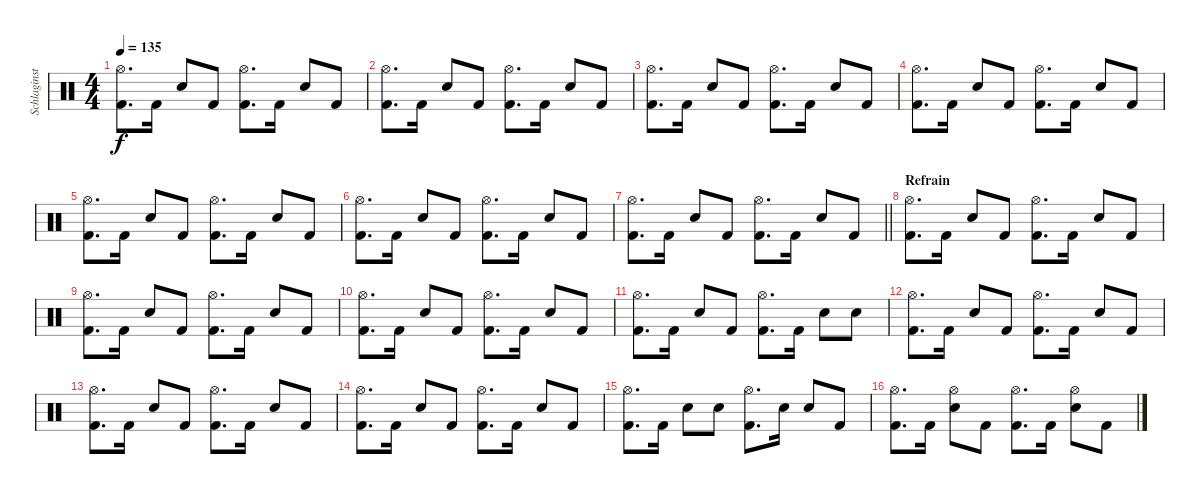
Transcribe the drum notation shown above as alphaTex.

\track ("Schlaginstrumente - Auswahl" "Schlaginst") {instrument percussion}
\staff {score}
\articulation defaults
\ts (4 4)
\tempo 135
\clef neutral
\ks c
("Hi-Hat (open)" "Kick (hit) 2").8{d dy f} "Kick (hit) 2".16 "Electric Snare (hit)".8 "Kick (hit) 2".8 ("Hi-Hat (open)" "Kick (hit) 2").8{d} "Kick (hit) 2".16 "Electric Snare (hit)".8 "Kick (hit) 2".8 |
("Hi-Hat (open)" "Kick (hit) 2").8{d} "Kick (hit) 2".16 "Electric Snare (hit)".8 "Kick (hit) 2".8 ("Hi-Hat (open)" "Kick (hit) 2").8{d} "Kick (hit) 2".16 "Electric Snare (hit)".8 "Kick (hit) 2".8 |
("Hi-Hat (open)" "Kick (hit) 2").8{d} "Kick (hit) 2".16 "Electric Snare (hit)".8 "Kick (hit) 2".8 ("Hi-Hat (open)" "Kick (hit) 2").8{d} "Kick (hit) 2".16 "Electric Snare (hit)".8 "Kick (hit) 2".8 |
("Hi-Hat (open)" "Kick (hit) 2").8{d} "Kick (hit) 2".16 "Electric Snare (hit)".8 "Kick (hit) 2".8 ("Hi-Hat (open)" "Kick (hit) 2").8{d} "Kick (hit) 2".16 "Electric Snare (hit)".8 "Kick (hit) 2".8 |
("Hi-Hat (open)" "Kick (hit) 2").8{d} "Kick (hit) 2".16 "Electric Snare (hit)".8 "Kick (hit) 2".8 ("Hi-Hat (open)" "Kick (hit) 2").8{d} "Kick (hit) 2".16 "Electric Snare (hit)".8 "Kick (hit) 2".8 |
("Hi-Hat (open)" "Kick (hit) 2").8{d} "Kick (hit) 2".16 "Electric Snare (hit)".8 "Kick (hit) 2".8 ("Hi-Hat (open)" "Kick (hit) 2").8{d} "Kick (hit) 2".16 "Electric Snare (hit)".8 "Kick (hit) 2".8 |
\barLineRight lightlight
("Hi-Hat (open)" "Kick (hit) 2").8{d} "Kick (hit) 2".16 "Electric Snare (hit)".8 "Kick (hit) 2".8 ("Hi-Hat (open)" "Kick (hit) 2").8{d} "Kick (hit) 2".16 "Electric Snare (hit)".8 "Kick (hit) 2".8 |
\section ("" "Refrain")
("Hi-Hat (open)" "Kick (hit) 2").8{d} "Kick (hit) 2".16 "Electric Snare (hit)".8 "Kick (hit) 2".8 ("Hi-Hat (open)" "Kick (hit) 2").8{d} "Kick (hit) 2".16 "Electric Snare (hit)".8 "Kick (hit) 2".8 |
("Hi-Hat (open)" "Kick (hit) 2").8{d} "Kick (hit) 2".16 "Electric Snare (hit)".8 "Kick (hit) 2".8 ("Hi-Hat (open)" "Kick (hit) 2").8{d} "Kick (hit) 2".16 "Electric Snare (hit)".8 "Kick (hit) 2".8 |
("Hi-Hat (open)" "Kick (hit) 2").8{d} "Kick (hit) 2".16 "Electric Snare (hit)".8 "Kick (hit) 2".8 ("Hi-Hat (open)" "Kick (hit) 2").8{d} "Kick (hit) 2".16 "Electric Snare (hit)".8 "Kick (hit) 2".8 |
("Hi-Hat (open)" "Kick (hit) 2").8{d} "Kick (hit) 2".16 "Electric Snare (hit)".8 "Kick (hit) 2".8 ("Hi-Hat (open)" "Kick (hit) 2").8{d} "Kick (hit) 2".16 "Electric Snare (hit)".8 "Electric Snare (hit)".8 |
("Hi-Hat (open)" "Kick (hit) 2").8{d} "Kick (hit) 2".16 "Electric Snare (hit)".8 "Kick (hit) 2".8 ("Hi-Hat (open)" "Kick (hit) 2").8{d} "Kick (hit) 2".16 "Electric Snare (hit)".8 "Kick (hit) 2".8 |
("Hi-Hat (open)" "Kick (hit) 2").8{d} "Kick (hit) 2".16 "Electric Snare (hit)".8 "Kick (hit) 2".8 ("Hi-Hat (open)" "Kick (hit) 2").8{d} "Kick (hit) 2".16 "Electric Snare (hit)".8 "Kick (hit) 2".8 |
("Hi-Hat (open)" "Kick (hit) 2").8{d} "Kick (hit) 2".16 "Electric Snare (hit)".8 "Kick (hit) 2".8 ("Hi-Hat (open)" "Kick (hit) 2").8{d} "Kick (hit) 2".16 "Electric Snare (hit)".8 "Kick (hit) 2".8 |
("Hi-Hat (open)" "Kick (hit) 2").8{d} "Kick (hit) 2".16 "Electric Snare (hit)".8 "Electric Snare (hit)".8 ("Hi-Hat (open)" "Kick (hit) 2").8{d} "Electric Snare (hit)".16 "Electric Snare (hit)".8 "Kick (hit) 2".8 |
("Hi-Hat (open)" "Kick (hit) 2").8{d} "Kick (hit) 2".16 ("Hi-Hat (open)" "Electric Snare (hit)").8 "Kick (hit) 2".8 ("Hi-Hat (open)" "Kick (hit) 2").8{d} "Kick (hit) 2".16 ("Hi-Hat (open)" "Electric Snare (hit)").8 "Kick (hit) 2".8
